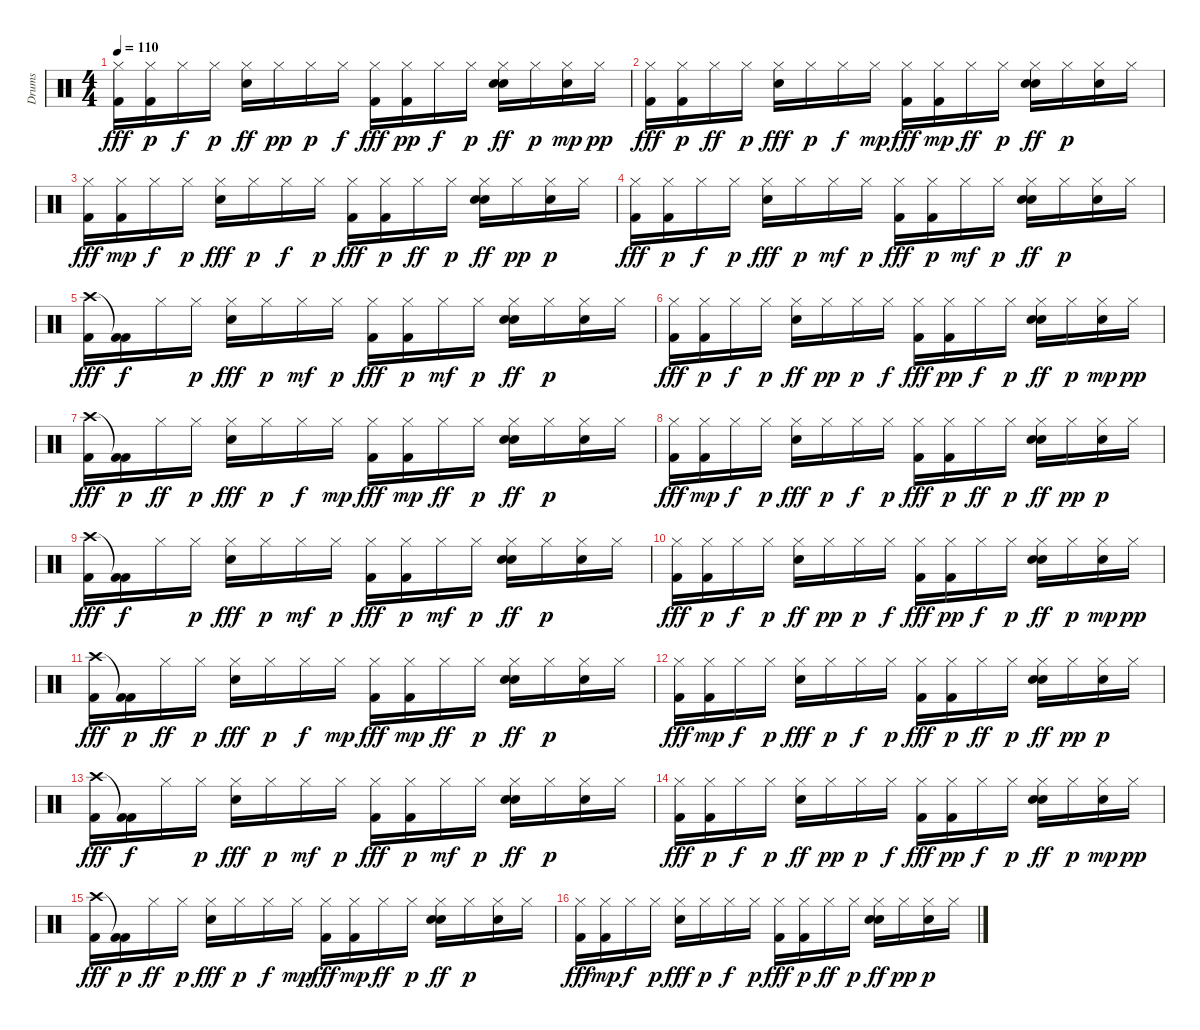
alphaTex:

\track ("Drums" "Drums") {instrument percussion}
\staff {score}
\articulation defaults
\ts (4 4)
\tempo 110
\clef neutral
\ks c
("Hi-Hat (closed)" "Kick (hit) 2").16{dy fff} ("Hi-Hat (closed)" "Kick (hit) 2").16{dy p} "Hi-Hat (closed)".16{dy f} "Hi-Hat (closed)".16{dy p} ("Hi-Hat (closed)" "Snare (hit) 2").16{dy ff} "Hi-Hat (closed)".16{dy pp} "Hi-Hat (closed)".16{dy p} "Hi-Hat (closed)".16{dy f} ("Hi-Hat (closed)" "Kick (hit) 2").16{dy fff} ("Hi-Hat (closed)" "Kick (hit) 2").16{dy pp} "Hi-Hat (closed)".16{dy f} "Hi-Hat (closed)".16{dy p} ("Hi-Hat (closed)" "Snare (hit) 2" "Hand Clap (hit)").16{dy ff} "Hi-Hat (closed)".16{dy p} ("Hi-Hat (closed)" "Hand Clap (hit)").16{dy mp} "Hi-Hat (closed)".16{dy pp} |
("Hi-Hat (closed)" "Kick (hit) 2").16{dy fff} ("Hi-Hat (closed)" "Kick (hit) 2").16{dy p} "Hi-Hat (closed)".16{dy ff} "Hi-Hat (closed)".16{dy p} ("Hi-Hat (closed)" "Snare (hit) 2").16{dy fff} "Hi-Hat (closed)".16{dy p} "Hi-Hat (closed)".16{dy f} "Hi-Hat (closed)".16{dy mp} ("Hi-Hat (closed)" "Kick (hit) 2").16{dy fff} ("Hi-Hat (closed)" "Kick (hit) 2").16{dy mp} "Hi-Hat (closed)".16{dy ff} "Hi-Hat (closed)".16{dy p} ("Hi-Hat (closed)" "Snare (hit) 2" "Hand Clap (hit)").16{dy ff} "Hi-Hat (closed)".16{dy p} ("Hi-Hat (closed)" "Hand Clap (hit)").16 "Hi-Hat (closed)".16 |
("Hi-Hat (closed)" "Kick (hit) 2").16{dy fff} ("Hi-Hat (closed)" "Kick (hit) 2").16{dy mp} "Hi-Hat (closed)".16{dy f} "Hi-Hat (closed)".16{dy p} ("Hi-Hat (closed)" "Snare (hit) 2").16{dy fff} "Hi-Hat (closed)".16{dy p} "Hi-Hat (closed)".16{dy f} "Hi-Hat (closed)".16{dy p} ("Hi-Hat (closed)" "Kick (hit) 2").16{dy fff} ("Hi-Hat (closed)" "Kick (hit) 2").16{dy p} "Hi-Hat (closed)".16{dy ff} "Hi-Hat (closed)".16{dy p} ("Hi-Hat (closed)" "Snare (hit) 2" "Hand Clap (hit)").16{dy ff} "Hi-Hat (closed)".16{dy pp} ("Hi-Hat (closed)" "Hand Clap (hit)").16{dy p} "Hi-Hat (closed)".16 |
("Hi-Hat (closed)" "Kick (hit) 2").16{dy fff} ("Hi-Hat (closed)" "Kick (hit) 2").16{dy p} "Hi-Hat (closed)".16{dy f} "Hi-Hat (closed)".16{dy p} ("Hi-Hat (closed)" "Snare (hit) 2").16{dy fff} "Hi-Hat (closed)".16{dy p} "Hi-Hat (closed)".16{dy mf} "Hi-Hat (closed)".16{dy p} ("Hi-Hat (closed)" "Kick (hit) 2").16{dy fff} ("Hi-Hat (closed)" "Kick (hit) 2").16{dy p} "Hi-Hat (closed)".16{dy mf} "Hi-Hat (closed)".16{dy p} ("Hi-Hat (closed)" "Snare (hit) 2" "Hand Clap (hit)").16{dy ff} "Hi-Hat (closed)".16{dy p} ("Hi-Hat (closed)" "Hand Clap (hit)").16 "Hi-Hat (closed)".16 |
("Crash high (hit)" "Kick (hit) 2").16{dy fff} ("Kick (hit) 2"{t} "Kick (hit) 2").16{dy f} "Hi-Hat (closed)".16 "Hi-Hat (closed)".16{dy p} ("Hi-Hat (closed)" "Snare (hit) 2").16{dy fff} "Hi-Hat (closed)".16{dy p} "Hi-Hat (closed)".16{dy mf} "Hi-Hat (closed)".16{dy p} ("Hi-Hat (closed)" "Kick (hit) 2").16{dy fff} ("Hi-Hat (closed)" "Kick (hit) 2").16{dy p} "Hi-Hat (closed)".16{dy mf} "Hi-Hat (closed)".16{dy p} ("Hi-Hat (closed)" "Snare (hit) 2" "Hand Clap (hit)").16{dy ff} "Hi-Hat (closed)".16{dy p} ("Hi-Hat (closed)" "Hand Clap (hit)").16 "Hi-Hat (closed)".16 |
("Hi-Hat (closed)" "Kick (hit) 2").16{dy fff} ("Hi-Hat (closed)" "Kick (hit) 2").16{dy p} "Hi-Hat (closed)".16{dy f} "Hi-Hat (closed)".16{dy p} ("Hi-Hat (closed)" "Snare (hit) 2").16{dy ff} "Hi-Hat (closed)".16{dy pp} "Hi-Hat (closed)".16{dy p} "Hi-Hat (closed)".16{dy f} ("Hi-Hat (closed)" "Kick (hit) 2").16{dy fff} ("Hi-Hat (closed)" "Kick (hit) 2").16{dy pp} "Hi-Hat (closed)".16{dy f} "Hi-Hat (closed)".16{dy p} ("Hi-Hat (closed)" "Snare (hit) 2" "Hand Clap (hit)").16{dy ff} "Hi-Hat (closed)".16{dy p} ("Hi-Hat (closed)" "Hand Clap (hit)").16{dy mp} "Hi-Hat (closed)".16{dy pp} |
("Crash high (hit)" "Kick (hit) 2").16{dy fff} ("Kick (hit) 2"{t} "Kick (hit) 2").16{dy p} "Hi-Hat (closed)".16{dy ff} "Hi-Hat (closed)".16{dy p} ("Hi-Hat (closed)" "Snare (hit) 2").16{dy fff} "Hi-Hat (closed)".16{dy p} "Hi-Hat (closed)".16{dy f} "Hi-Hat (closed)".16{dy mp} ("Hi-Hat (closed)" "Kick (hit) 2").16{dy fff} ("Hi-Hat (closed)" "Kick (hit) 2").16{dy mp} "Hi-Hat (closed)".16{dy ff} "Hi-Hat (closed)".16{dy p} ("Hi-Hat (closed)" "Snare (hit) 2" "Hand Clap (hit)").16{dy ff} "Hi-Hat (closed)".16{dy p} ("Hi-Hat (closed)" "Hand Clap (hit)").16 "Hi-Hat (closed)".16 |
("Hi-Hat (closed)" "Kick (hit) 2").16{dy fff} ("Hi-Hat (closed)" "Kick (hit) 2").16{dy mp} "Hi-Hat (closed)".16{dy f} "Hi-Hat (closed)".16{dy p} ("Hi-Hat (closed)" "Snare (hit) 2").16{dy fff} "Hi-Hat (closed)".16{dy p} "Hi-Hat (closed)".16{dy f} "Hi-Hat (closed)".16{dy p} ("Hi-Hat (closed)" "Kick (hit) 2").16{dy fff} ("Hi-Hat (closed)" "Kick (hit) 2").16{dy p} "Hi-Hat (closed)".16{dy ff} "Hi-Hat (closed)".16{dy p} ("Hi-Hat (closed)" "Snare (hit) 2" "Hand Clap (hit)").16{dy ff} "Hi-Hat (closed)".16{dy pp} ("Hi-Hat (closed)" "Hand Clap (hit)").16{dy p} "Hi-Hat (closed)".16 |
("Crash high (hit)" "Kick (hit) 2").16{dy fff} ("Kick (hit) 2"{t} "Kick (hit) 2").16{dy f} "Hi-Hat (closed)".16 "Hi-Hat (closed)".16{dy p} ("Hi-Hat (closed)" "Snare (hit) 2").16{dy fff} "Hi-Hat (closed)".16{dy p} "Hi-Hat (closed)".16{dy mf} "Hi-Hat (closed)".16{dy p} ("Hi-Hat (closed)" "Kick (hit) 2").16{dy fff} ("Hi-Hat (closed)" "Kick (hit) 2").16{dy p} "Hi-Hat (closed)".16{dy mf} "Hi-Hat (closed)".16{dy p} ("Hi-Hat (closed)" "Snare (hit) 2" "Hand Clap (hit)").16{dy ff} "Hi-Hat (closed)".16{dy p} ("Hi-Hat (closed)" "Hand Clap (hit)").16 "Hi-Hat (closed)".16 |
("Hi-Hat (closed)" "Kick (hit) 2").16{dy fff} ("Hi-Hat (closed)" "Kick (hit) 2").16{dy p} "Hi-Hat (closed)".16{dy f} "Hi-Hat (closed)".16{dy p} ("Hi-Hat (closed)" "Snare (hit) 2").16{dy ff} "Hi-Hat (closed)".16{dy pp} "Hi-Hat (closed)".16{dy p} "Hi-Hat (closed)".16{dy f} ("Hi-Hat (closed)" "Kick (hit) 2").16{dy fff} ("Hi-Hat (closed)" "Kick (hit) 2").16{dy pp} "Hi-Hat (closed)".16{dy f} "Hi-Hat (closed)".16{dy p} ("Hi-Hat (closed)" "Snare (hit) 2" "Hand Clap (hit)").16{dy ff} "Hi-Hat (closed)".16{dy p} ("Hi-Hat (closed)" "Hand Clap (hit)").16{dy mp} "Hi-Hat (closed)".16{dy pp} |
("Crash high (hit)" "Kick (hit) 2").16{dy fff} ("Kick (hit) 2"{t} "Kick (hit) 2").16{dy p} "Hi-Hat (closed)".16{dy ff} "Hi-Hat (closed)".16{dy p} ("Hi-Hat (closed)" "Snare (hit) 2").16{dy fff} "Hi-Hat (closed)".16{dy p} "Hi-Hat (closed)".16{dy f} "Hi-Hat (closed)".16{dy mp} ("Hi-Hat (closed)" "Kick (hit) 2").16{dy fff} ("Hi-Hat (closed)" "Kick (hit) 2").16{dy mp} "Hi-Hat (closed)".16{dy ff} "Hi-Hat (closed)".16{dy p} ("Hi-Hat (closed)" "Snare (hit) 2" "Hand Clap (hit)").16{dy ff} "Hi-Hat (closed)".16{dy p} ("Hi-Hat (closed)" "Hand Clap (hit)").16 "Hi-Hat (closed)".16 |
("Hi-Hat (closed)" "Kick (hit) 2").16{dy fff} ("Hi-Hat (closed)" "Kick (hit) 2").16{dy mp} "Hi-Hat (closed)".16{dy f} "Hi-Hat (closed)".16{dy p} ("Hi-Hat (closed)" "Snare (hit) 2").16{dy fff} "Hi-Hat (closed)".16{dy p} "Hi-Hat (closed)".16{dy f} "Hi-Hat (closed)".16{dy p} ("Hi-Hat (closed)" "Kick (hit) 2").16{dy fff} ("Hi-Hat (closed)" "Kick (hit) 2").16{dy p} "Hi-Hat (closed)".16{dy ff} "Hi-Hat (closed)".16{dy p} ("Hi-Hat (closed)" "Snare (hit) 2" "Hand Clap (hit)").16{dy ff} "Hi-Hat (closed)".16{dy pp} ("Hi-Hat (closed)" "Hand Clap (hit)").16{dy p} "Hi-Hat (closed)".16 |
("Crash high (hit)" "Kick (hit) 2").16{dy fff} ("Kick (hit) 2"{t} "Kick (hit) 2").16{dy f} "Hi-Hat (closed)".16 "Hi-Hat (closed)".16{dy p} ("Hi-Hat (closed)" "Snare (hit) 2").16{dy fff} "Hi-Hat (closed)".16{dy p} "Hi-Hat (closed)".16{dy mf} "Hi-Hat (closed)".16{dy p} ("Hi-Hat (closed)" "Kick (hit) 2").16{dy fff} ("Hi-Hat (closed)" "Kick (hit) 2").16{dy p} "Hi-Hat (closed)".16{dy mf} "Hi-Hat (closed)".16{dy p} ("Hi-Hat (closed)" "Snare (hit) 2" "Hand Clap (hit)").16{dy ff} "Hi-Hat (closed)".16{dy p} ("Hi-Hat (closed)" "Hand Clap (hit)").16 "Hi-Hat (closed)".16 |
("Hi-Hat (closed)" "Kick (hit) 2").16{dy fff} ("Hi-Hat (closed)" "Kick (hit) 2").16{dy p} "Hi-Hat (closed)".16{dy f} "Hi-Hat (closed)".16{dy p} ("Hi-Hat (closed)" "Snare (hit) 2").16{dy ff} "Hi-Hat (closed)".16{dy pp} "Hi-Hat (closed)".16{dy p} "Hi-Hat (closed)".16{dy f} ("Hi-Hat (closed)" "Kick (hit) 2").16{dy fff} ("Hi-Hat (closed)" "Kick (hit) 2").16{dy pp} "Hi-Hat (closed)".16{dy f} "Hi-Hat (closed)".16{dy p} ("Hi-Hat (closed)" "Snare (hit) 2" "Hand Clap (hit)").16{dy ff} "Hi-Hat (closed)".16{dy p} ("Hi-Hat (closed)" "Hand Clap (hit)").16{dy mp} "Hi-Hat (closed)".16{dy pp} |
("Crash high (hit)" "Kick (hit) 2").16{dy fff} ("Kick (hit) 2"{t} "Kick (hit) 2").16{dy p} "Hi-Hat (closed)".16{dy ff} "Hi-Hat (closed)".16{dy p} ("Hi-Hat (closed)" "Snare (hit) 2").16{dy fff} "Hi-Hat (closed)".16{dy p} "Hi-Hat (closed)".16{dy f} "Hi-Hat (closed)".16{dy mp} ("Hi-Hat (closed)" "Kick (hit) 2").16{dy fff} ("Hi-Hat (closed)" "Kick (hit) 2").16{dy mp} "Hi-Hat (closed)".16{dy ff} "Hi-Hat (closed)".16{dy p} ("Hi-Hat (closed)" "Snare (hit) 2" "Hand Clap (hit)").16{dy ff} "Hi-Hat (closed)".16{dy p} ("Hi-Hat (closed)" "Hand Clap (hit)").16 "Hi-Hat (closed)".16 |
("Hi-Hat (closed)" "Kick (hit) 2").16{dy fff} ("Hi-Hat (closed)" "Kick (hit) 2").16{dy mp} "Hi-Hat (closed)".16{dy f} "Hi-Hat (closed)".16{dy p} ("Hi-Hat (closed)" "Snare (hit) 2").16{dy fff} "Hi-Hat (closed)".16{dy p} "Hi-Hat (closed)".16{dy f} "Hi-Hat (closed)".16{dy p} ("Hi-Hat (closed)" "Kick (hit) 2").16{dy fff} ("Hi-Hat (closed)" "Kick (hit) 2").16{dy p} "Hi-Hat (closed)".16{dy ff} "Hi-Hat (closed)".16{dy p} ("Hi-Hat (closed)" "Snare (hit) 2" "Hand Clap (hit)").16{dy ff} "Hi-Hat (closed)".16{dy pp} ("Hi-Hat (closed)" "Hand Clap (hit)").16{dy p} "Hi-Hat (closed)".16
